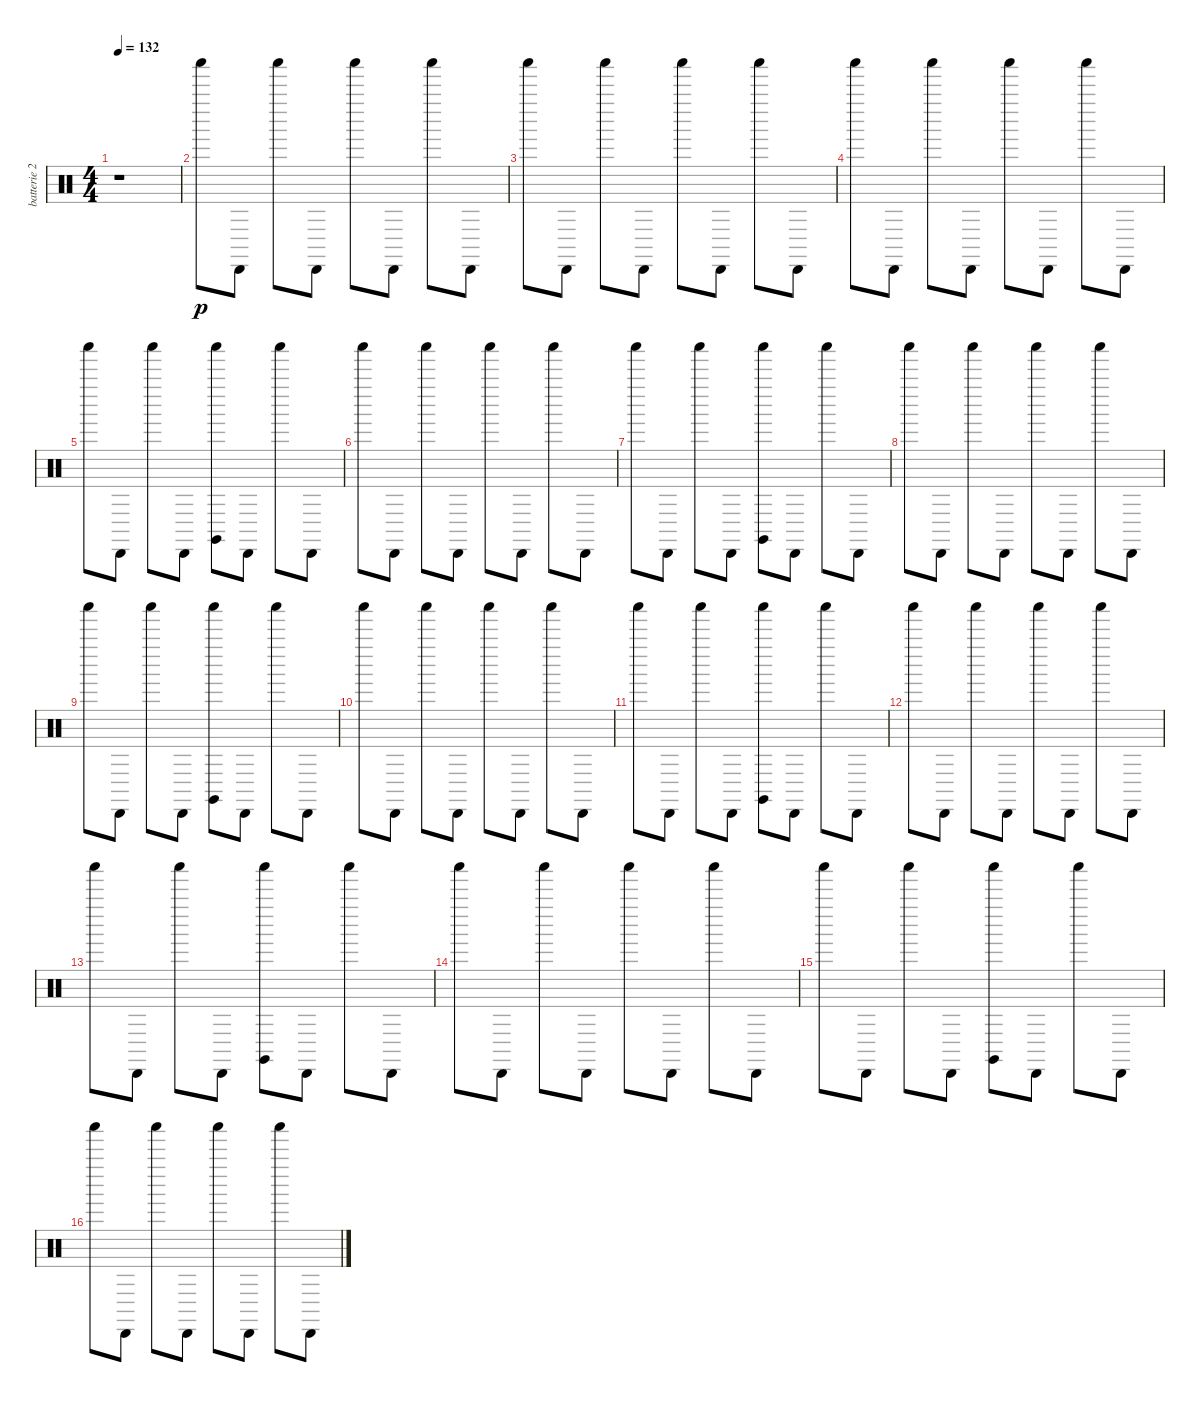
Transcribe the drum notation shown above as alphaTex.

\track ("batterie 2" "batterie 2") {instrument percussion}
\staff {score}
\articulation defaults
\ts (4 4)
\tempo 132
\clef neutral
\ks c
r.1{dy p} |
"Shaker (hit)".8 "Cabasa (hit)".8 "Shaker (hit)".8 "Cabasa (hit)".8 "Shaker (hit)".8 "Cabasa (hit)".8 "Shaker (hit)".8 "Cabasa (hit)".8 |
"Shaker (hit)".8 "Cabasa (hit)".8 "Shaker (hit)".8 "Cabasa (hit)".8 "Shaker (hit)".8 "Cabasa (hit)".8 "Shaker (hit)".8 "Cabasa (hit)".8 |
"Shaker (hit)".8 "Cabasa (hit)".8 "Shaker (hit)".8 "Cabasa (hit)".8 "Shaker (hit)".8 "Cabasa (hit)".8 "Shaker (hit)".8 "Cabasa (hit)".8 |
"Shaker (hit)".8 "Cabasa (hit)".8 "Shaker (hit)".8 "Cabasa (hit)".8 ("Claves (hit)" "Shaker (hit)").8 "Cabasa (hit)".8 "Shaker (hit)".8 "Cabasa (hit)".8 |
"Shaker (hit)".8 "Cabasa (hit)".8 "Shaker (hit)".8 "Cabasa (hit)".8 "Shaker (hit)".8 "Cabasa (hit)".8 "Shaker (hit)".8 "Cabasa (hit)".8 |
"Shaker (hit)".8 "Cabasa (hit)".8 "Shaker (hit)".8 "Cabasa (hit)".8 ("Claves (hit)" "Shaker (hit)").8 "Cabasa (hit)".8 "Shaker (hit)".8 "Cabasa (hit)".8 |
"Shaker (hit)".8 "Cabasa (hit)".8 "Shaker (hit)".8 "Cabasa (hit)".8 "Shaker (hit)".8 "Cabasa (hit)".8 "Shaker (hit)".8 "Cabasa (hit)".8 |
"Shaker (hit)".8 "Cabasa (hit)".8 "Shaker (hit)".8 "Cabasa (hit)".8 ("Claves (hit)" "Shaker (hit)").8 "Cabasa (hit)".8 "Shaker (hit)".8 "Cabasa (hit)".8 |
"Shaker (hit)".8 "Cabasa (hit)".8 "Shaker (hit)".8 "Cabasa (hit)".8 "Shaker (hit)".8 "Cabasa (hit)".8 "Shaker (hit)".8 "Cabasa (hit)".8 |
"Shaker (hit)".8 "Cabasa (hit)".8 "Shaker (hit)".8 "Cabasa (hit)".8 ("Claves (hit)" "Shaker (hit)").8 "Cabasa (hit)".8 "Shaker (hit)".8 "Cabasa (hit)".8 |
"Shaker (hit)".8 "Cabasa (hit)".8 "Shaker (hit)".8 "Cabasa (hit)".8 "Shaker (hit)".8 "Cabasa (hit)".8 "Shaker (hit)".8 "Cabasa (hit)".8 |
"Shaker (hit)".8 "Cabasa (hit)".8 "Shaker (hit)".8 "Cabasa (hit)".8 ("Claves (hit)" "Shaker (hit)").8 "Cabasa (hit)".8 "Shaker (hit)".8 "Cabasa (hit)".8 |
"Shaker (hit)".8 "Cabasa (hit)".8 "Shaker (hit)".8 "Cabasa (hit)".8 "Shaker (hit)".8 "Cabasa (hit)".8 "Shaker (hit)".8 "Cabasa (hit)".8 |
"Shaker (hit)".8 "Cabasa (hit)".8 "Shaker (hit)".8 "Cabasa (hit)".8 ("Claves (hit)" "Shaker (hit)").8 "Cabasa (hit)".8 "Shaker (hit)".8 "Cabasa (hit)".8 |
"Shaker (hit)".8 "Cabasa (hit)".8 "Shaker (hit)".8 "Cabasa (hit)".8 "Shaker (hit)".8 "Cabasa (hit)".8 "Shaker (hit)".8 "Cabasa (hit)".8
